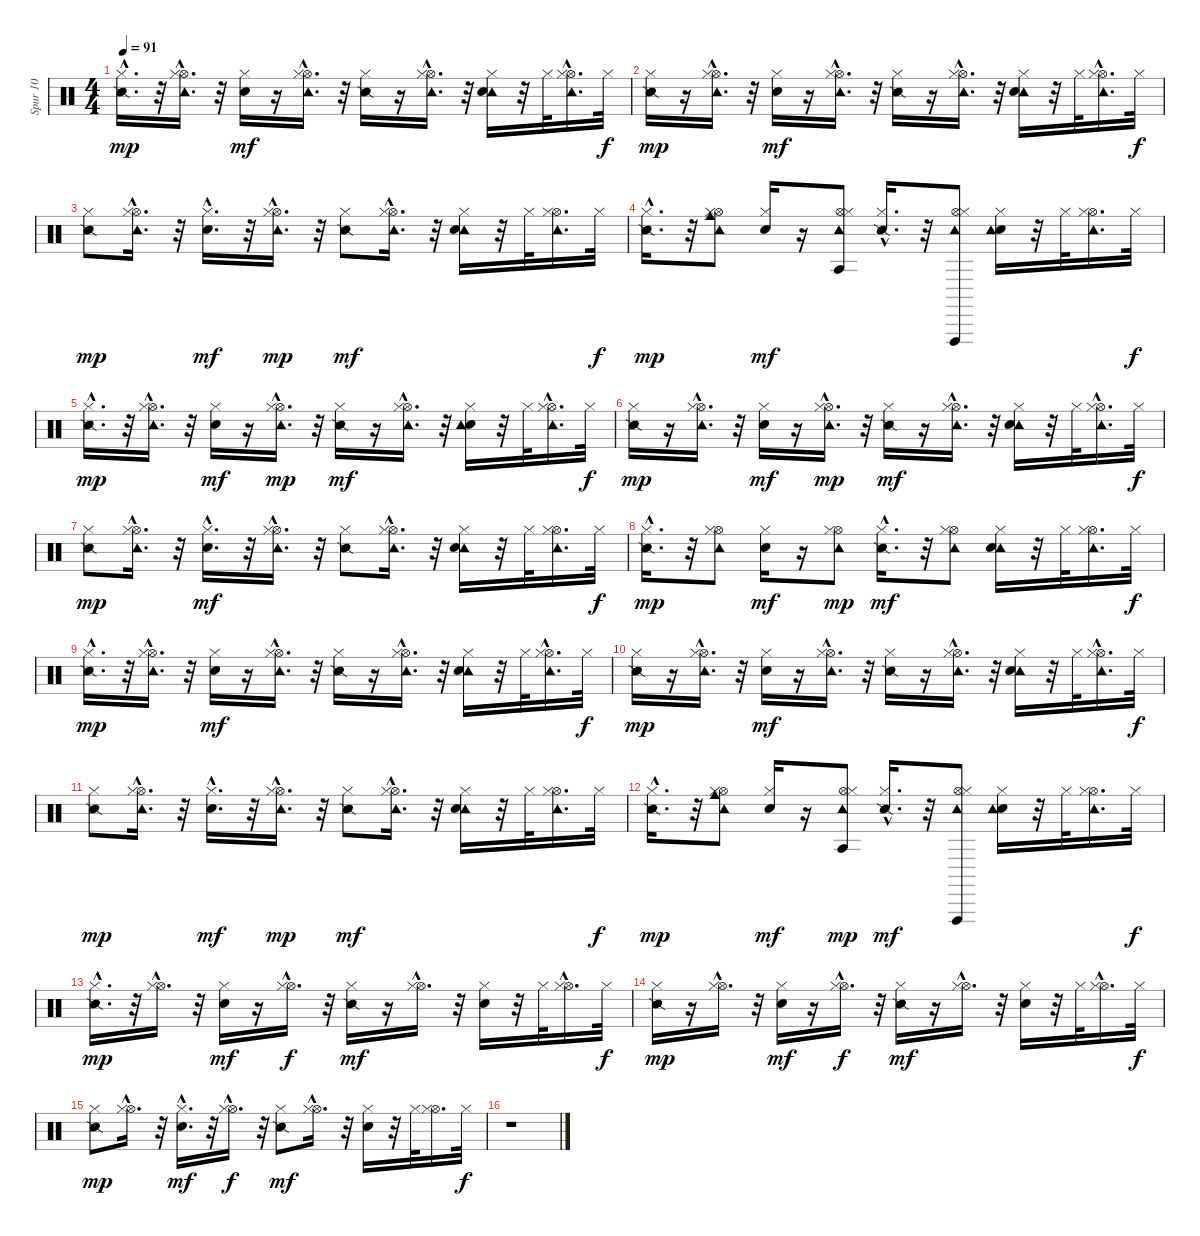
\track ("Spur 10" "Spur 10") {instrument percussion}
\staff {score}
\articulation defaults
\ts (4 4)
\tempo 91
\clef neutral
\ks c
("Snare (side stick) 2"{hac} "Hi-Hat (closed)").16{d dy mp} r.32 ("Tambourine (hit)" "Hi-Hat (open)"{hac} "Hi-Hat (closed)").16{d} r.32 ("Electric Snare (hit)" "Hi-Hat (closed)").16{dy mf} r.16 ("Tambourine (hit)" "Hi-Hat (open)"{hac} "Hi-Hat (closed)").16{d} r.32 ("Snare (side stick) 2" "Hi-Hat (closed)").16 r.16 ("Tambourine (hit)" "Hi-Hat (open)"{hac} "Hi-Hat (closed)").16{d} r.32 ("Tambourine (hit)" "Electric Snare (hit)" "Hi-Hat (closed)").16 r.32 "Hi-Hat (closed)".32 ("Tambourine (hit)" "Hi-Hat (open)"{hac} "Hi-Hat (closed)").16{d} "Hi-Hat (closed)".32{dy f} |
("Snare (side stick) 2" "Hi-Hat (closed)").16{dy mp} r.16 ("Tambourine (hit)" "Hi-Hat (open)"{hac} "Hi-Hat (closed)").16{d} r.32 ("Electric Snare (hit)" "Hi-Hat (closed)").16{dy mf} r.16 ("Tambourine (hit)" "Hi-Hat (open)"{hac} "Hi-Hat (closed)").16{d} r.32 ("Snare (side stick) 2" "Hi-Hat (closed)").16 r.16 ("Tambourine (hit)" "Hi-Hat (open)"{hac} "Hi-Hat (closed)").16{d} r.32 ("Tambourine (hit)" "Electric Snare (hit)" "Hi-Hat (closed)").16 r.32 "Hi-Hat (closed)".32 ("Tambourine (hit)" "Hi-Hat (open)"{hac} "Hi-Hat (closed)").16{d} "Hi-Hat (closed)".32{dy f} |
("Snare (side stick) 2" "Hi-Hat (closed)").8{dy mp} ("Tambourine (hit)" "Hi-Hat (open)"{hac} "Hi-Hat (closed)").16{d} r.32 ("Electric Snare (hit)"{hac} "Hi-Hat (closed)").16{d dy mf} r.32 ("Tambourine (hit)" "Hi-Hat (open)"{hac} "Hi-Hat (closed)").16{d dy mp} r.32 ("Snare (side stick) 2" "Hi-Hat (closed)").8{dy mf} ("Tambourine (hit)" "Hi-Hat (open)"{hac} "Hi-Hat (closed)").16{d} r.32 ("Tambourine (hit)" "Electric Snare (hit)" "Hi-Hat (closed)").16 r.32 "Hi-Hat (closed)".32 ("Tambourine (hit)" "Hi-Hat (open)" "Hi-Hat (closed)").16{d} "Hi-Hat (closed)".32{dy f} |
("Snare (side stick) 2"{hac} "Hi-Hat (closed)").16{d dy mp} r.32 ("Tambourine (hit)" "Hi-Hat (open)" "Cowbell medium (hit)" "Hi-Hat (closed)").8 ("Electric Snare (hit)" "Hi-Hat (closed)").16{dy mf} r.16 ("Tambourine (hit)" "Hi-Hat (open)" "Hi-Hat (closed)" "Agogo tow (hit)").8 ("Snare (side stick) 2"{hac} "Hi-Hat (closed)").16{d} r.32 ("Vibraslap (hit)" "Tambourine (hit)" "Hi-Hat (open)" "Hi-Hat (closed)").8 ("Electric Snare (hit)" "Tambourine (hit)" "Hi-Hat (closed)").16 r.32 "Hi-Hat (closed)".32 ("Tambourine (hit)" "Hi-Hat (open)" "Hi-Hat (closed)").16{d} "Hi-Hat (closed)".32{dy f volume 15} |
("Snare (side stick) 2"{hac} "Hi-Hat (closed)").16{d dy mp} r.32 ("Tambourine (hit)" "Hi-Hat (open)"{hac} "Hi-Hat (closed)").16{d volume 15} r.32 ("Electric Snare (hit)" "Hi-Hat (closed)").16{dy mf volume 14} r.16 ("Tambourine (hit)" "Hi-Hat (open)"{hac} "Hi-Hat (closed)").16{d dy mp} r.32 ("Snare (side stick) 2" "Hi-Hat (closed)").16{dy mf} r.16 ("Tambourine (hit)" "Hi-Hat (open)"{hac} "Hi-Hat (closed)").16{d volume 15} r.32 ("Electric Snare (hit)" "Tambourine (hit)" "Hi-Hat (closed)").16{volume 15} r.32 "Hi-Hat (closed)".32{volume 15} ("Tambourine (hit)" "Hi-Hat (open)"{hac} "Hi-Hat (closed)").16{d volume 15} "Hi-Hat (closed)".32{dy f volume 14} |
("Snare (side stick) 2" "Hi-Hat (closed)").16{dy mp volume 15} r.16 ("Tambourine (hit)" "Hi-Hat (open)"{hac} "Hi-Hat (closed)").16{d volume 14} r.32 ("Electric Snare (hit)" "Hi-Hat (closed)").16{dy mf volume 14} r.16 ("Tambourine (hit)" "Hi-Hat (open)"{hac} "Hi-Hat (closed)").16{d dy mp volume 14} r.32 ("Snare (side stick) 2" "Hi-Hat (closed)").16{dy mf volume 14} r.16 ("Tambourine (hit)" "Hi-Hat (open)"{hac} "Hi-Hat (closed)").16{d volume 14} r.32 ("Tambourine (hit)" "Electric Snare (hit)" "Hi-Hat (closed)").16{volume 14} r.32 "Hi-Hat (closed)".32{volume 14} ("Tambourine (hit)" "Hi-Hat (open)"{hac} "Hi-Hat (closed)").16{d volume 14} "Hi-Hat (closed)".32{dy f volume 13} |
("Snare (side stick) 2" "Hi-Hat (closed)").8{dy mp volume 13} ("Tambourine (hit)" "Hi-Hat (open)"{hac} "Hi-Hat (closed)").16{d volume 14} r.32 ("Electric Snare (hit)"{hac} "Hi-Hat (closed)").16{d dy mf volume 14} r.32 ("Tambourine (hit)" "Hi-Hat (open)"{hac} "Hi-Hat (closed)").16{d volume 13} r.32 ("Snare (side stick) 2" "Hi-Hat (closed)").8{volume 13} ("Tambourine (hit)" "Hi-Hat (open)"{hac} "Hi-Hat (closed)").16{d volume 13} r.32 ("Tambourine (hit)" "Electric Snare (hit)" "Hi-Hat (closed)").16{volume 13} r.32 "Hi-Hat (closed)".32{volume 12} ("Tambourine (hit)" "Hi-Hat (open)" "Hi-Hat (closed)").16{d volume 12} "Hi-Hat (closed)".32{dy f volume 12} |
("Snare (side stick) 2"{hac} "Hi-Hat (closed)").16{d dy mp volume 6} r.32 ("Tambourine (hit)" "Hi-Hat (open)" "Hi-Hat (closed)").8{volume 13} ("Electric Snare (hit)" "Hi-Hat (closed)").16{dy mf volume 12} r.16 ("Tambourine (hit)" "Hi-Hat (open)" "Hi-Hat (closed)").8{dy mp volume 12} ("Snare (side stick) 2"{hac} "Hi-Hat (closed)").16{d dy mf volume 6} r.32 ("Tambourine (hit)" "Hi-Hat (open)" "Hi-Hat (closed)").8{volume 12} ("Tambourine (hit)" "Electric Snare (hit)" "Hi-Hat (closed)").16{volume 12} r.32 "Hi-Hat (closed)".32{volume 12} ("Tambourine (hit)" "Hi-Hat (open)" "Hi-Hat (closed)").16{d volume 12} "Hi-Hat (closed)".32{dy f volume 12} |
("Snare (side stick) 2"{hac} "Hi-Hat (closed)").16{d dy mp volume 12} r.32 ("Tambourine (hit)" "Hi-Hat (open)"{hac} "Hi-Hat (closed)").16{d volume 5} r.32 ("Electric Snare (hit)" "Hi-Hat (closed)").16{dy mf volume 11} r.16 ("Tambourine (hit)" "Hi-Hat (open)"{hac} "Hi-Hat (closed)").16{d volume 12} r.32 ("Snare (side stick) 2" "Hi-Hat (closed)").16{volume 5} r.16 ("Tambourine (hit)" "Hi-Hat (open)"{hac} "Hi-Hat (closed)").16{d volume 10} r.32 ("Tambourine (hit)" "Electric Snare (hit)" "Hi-Hat (closed)").16{volume 10} r.32 "Hi-Hat (closed)".32{volume 5} ("Tambourine (hit)" "Hi-Hat (open)"{hac} "Hi-Hat (closed)").16{d volume 10} "Hi-Hat (closed)".32{dy f volume 5} |
("Snare (side stick) 2" "Hi-Hat (closed)").16{dy mp} r.16 ("Tambourine (hit)" "Hi-Hat (open)"{hac} "Hi-Hat (closed)").16{d volume 9} r.32 ("Electric Snare (hit)" "Hi-Hat (closed)").16{dy mf volume 10} r.16 ("Tambourine (hit)" "Hi-Hat (open)"{hac} "Hi-Hat (closed)").16{d volume 9} r.32 ("Snare (side stick) 2" "Hi-Hat (closed)").16{volume 9} r.16 ("Tambourine (hit)" "Hi-Hat (open)"{hac} "Hi-Hat (closed)").16{d volume 9} r.32 ("Tambourine (hit)" "Electric Snare (hit)" "Hi-Hat (closed)").16{volume 8} r.32 "Hi-Hat (closed)".32{volume 8} ("Tambourine (hit)" "Hi-Hat (open)"{hac} "Hi-Hat (closed)").16{d volume 8} "Hi-Hat (closed)".32{dy f volume 8} |
("Snare (side stick) 2" "Hi-Hat (closed)").8{dy mp volume 8} ("Tambourine (hit)" "Hi-Hat (open)"{hac} "Hi-Hat (closed)").16{d volume 7} r.32 ("Electric Snare (hit)"{hac} "Hi-Hat (closed)").16{d dy mf volume 8} r.32 ("Tambourine (hit)" "Hi-Hat (open)"{hac} "Hi-Hat (closed)").16{d dy mp volume 7} r.32 ("Snare (side stick) 2" "Hi-Hat (closed)").8{dy mf volume 7} ("Tambourine (hit)" "Hi-Hat (open)"{hac} "Hi-Hat (closed)").16{d volume 8} r.32 ("Tambourine (hit)" "Electric Snare (hit)" "Hi-Hat (closed)").16{volume 6} r.32 "Hi-Hat (closed)".32{volume 7} ("Tambourine (hit)" "Hi-Hat (open)" "Hi-Hat (closed)").16{d volume 7} "Hi-Hat (closed)".32{dy f volume 6} |
("Snare (side stick) 2"{hac} "Hi-Hat (closed)").16{d dy mp volume 6} r.32 ("Tambourine (hit)" "Hi-Hat (open)" "Cowbell medium (hit)" "Hi-Hat (closed)").8{volume 6} ("Electric Snare (hit)" "Hi-Hat (closed)").16{dy mf volume 5} r.16 ("Tambourine (hit)" "Hi-Hat (open)" "Hi-Hat (closed)" "Agogo tow (hit)").8{dy mp volume 4} ("Snare (side stick) 2"{hac} "Hi-Hat (closed)").16{d dy mf volume 4} r.32 ("Tambourine (hit)" "Vibraslap (hit)" "Hi-Hat (open)" "Hi-Hat (closed)").8{volume 2} ("Electric Snare (hit)" "Tambourine (hit)" "Hi-Hat (closed)").16{volume 1} r.32 "Hi-Hat (closed)".32{volume 2} ("Tambourine (hit)" "Hi-Hat (open)" "Hi-Hat (closed)").16{d volume 0} "Hi-Hat (closed)".32{dy f volume 1} |
("Snare (side stick) 2"{hac} "Hi-Hat (closed)").16{d dy mp volume 0} r.32 ("Hi-Hat (open)"{hac} "Hi-Hat (closed)").16{d volume 0} r.32 ("Electric Snare (hit)" "Hi-Hat (closed)").16{dy mf volume 0} r.16 ("Hi-Hat (open)"{hac} "Hi-Hat (closed)").16{d dy f volume 0} r.32 ("Snare (side stick) 2" "Hi-Hat (closed)").16{dy mf volume 0} r.16 ("Hi-Hat (open)"{hac} "Hi-Hat (closed)").16{d} r.32 ("Electric Snare (hit)" "Hi-Hat (closed)").16 r.32 "Hi-Hat (closed)".32 ("Hi-Hat (open)"{hac} "Hi-Hat (closed)").16{d} "Hi-Hat (closed)".32{dy f} |
("Snare (side stick) 2" "Hi-Hat (closed)").16{dy mp} r.16 ("Hi-Hat (open)"{hac} "Hi-Hat (closed)").16{d} r.32 ("Electric Snare (hit)" "Hi-Hat (closed)").16{dy mf} r.16 ("Hi-Hat (open)"{hac} "Hi-Hat (closed)").16{d dy f} r.32 ("Snare (side stick) 2" "Hi-Hat (closed)").16{dy mf} r.16 ("Hi-Hat (open)"{hac} "Hi-Hat (closed)").16{d} r.32 ("Electric Snare (hit)" "Hi-Hat (closed)").16 r.32 "Hi-Hat (closed)".32 ("Hi-Hat (open)"{hac} "Hi-Hat (closed)").16{d} "Hi-Hat (closed)".32{dy f} |
("Snare (side stick) 2" "Hi-Hat (closed)").8{dy mp} ("Hi-Hat (open)"{hac} "Hi-Hat (closed)").16{d} r.32 ("Electric Snare (hit)"{hac} "Hi-Hat (closed)").16{d dy mf} r.32 ("Hi-Hat (open)"{hac} "Hi-Hat (closed)").16{d dy f} r.32 ("Snare (side stick) 2" "Hi-Hat (closed)").8{dy mf} ("Hi-Hat (open)"{hac} "Hi-Hat (closed)").16{d} r.32 ("Electric Snare (hit)" "Hi-Hat (closed)").16 r.32 "Hi-Hat (closed)".32 ("Hi-Hat (open)" "Hi-Hat (closed)").16{d} "Hi-Hat (closed)".32{dy f} |
r.1
